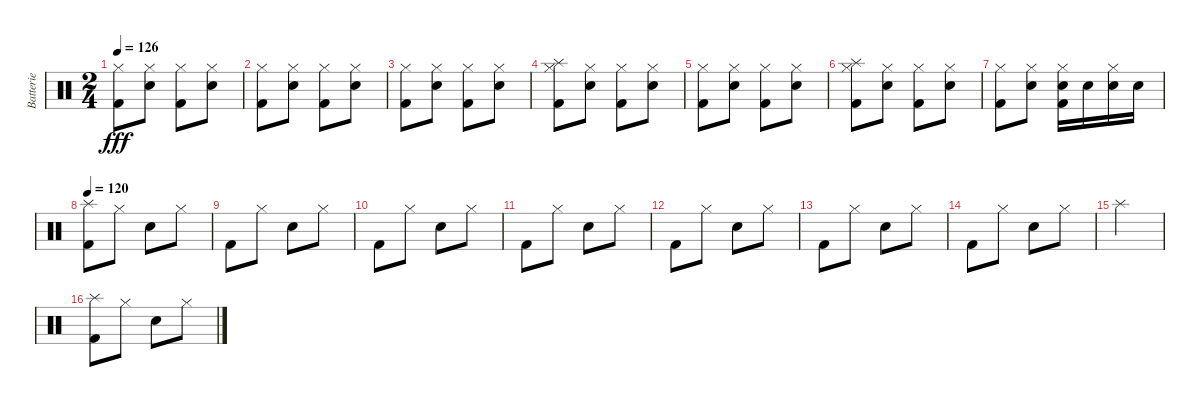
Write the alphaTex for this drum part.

\track ("Batterie" "Batterie") {instrument percussion}
\staff {score}
\articulation defaults
\ts (2 4)
\tempo 126
\clef neutral
\ks c
("Hi-Hat (closed)" "Kick (hit) 2").8{dy fff} ("Hi-Hat (closed)" "Electric Snare (hit)").8 ("Hi-Hat (closed)" "Kick (hit) 2").8 ("Hi-Hat (closed)" "Electric Snare (hit)").8 |
("Hi-Hat (closed)" "Kick (hit) 2").8 ("Hi-Hat (closed)" "Electric Snare (hit)").8 ("Hi-Hat (closed)" "Kick (hit) 2").8 ("Hi-Hat (closed)" "Electric Snare (hit)").8 |
("Hi-Hat (closed)" "Kick (hit) 2").8 ("Hi-Hat (closed)" "Electric Snare (hit)").8 ("Hi-Hat (closed)" "Kick (hit) 2").8 ("Hi-Hat (closed)" "Electric Snare (hit)").8 |
("Splash (hit)" "Hi-Hat (closed)" "Kick (hit) 2").8 ("Hi-Hat (closed)" "Electric Snare (hit)").8 ("Hi-Hat (closed)" "Kick (hit) 2").8 ("Hi-Hat (closed)" "Electric Snare (hit)").8 |
("Hi-Hat (closed)" "Kick (hit) 2").8 ("Hi-Hat (closed)" "Electric Snare (hit)").8 ("Hi-Hat (closed)" "Kick (hit) 2").8 ("Hi-Hat (closed)" "Electric Snare (hit)").8 |
("Splash (hit)" "Hi-Hat (closed)" "Kick (hit) 2").8 ("Hi-Hat (closed)" "Electric Snare (hit)").8 ("Hi-Hat (closed)" "Kick (hit) 2").8 ("Hi-Hat (closed)" "Electric Snare (hit)").8 |
("Hi-Hat (closed)" "Kick (hit) 2").8 ("Hi-Hat (closed)" "Electric Snare (hit)").8 ("Electric Snare (hit)" "Hi-Hat (closed)" "Kick (hit) 2").16 "Electric Snare (hit)".16 ("Electric Snare (hit)" "Hi-Hat (closed)").16 "Electric Snare (hit)".16 |
\tempo 120
("Kick (hit) 2" "Splash (hit)").8 "Hi-Hat (closed)".8 "Electric Snare (hit)".8 "Hi-Hat (closed)".8 |
"Kick (hit) 2".8 "Hi-Hat (closed)".8 "Electric Snare (hit)".8 "Hi-Hat (closed)".8 |
"Kick (hit) 2".8 "Hi-Hat (closed)".8 "Electric Snare (hit)".8 "Hi-Hat (closed)".8 |
"Kick (hit) 2".8 "Hi-Hat (closed)".8 "Electric Snare (hit)".8 "Hi-Hat (closed)".8 |
"Kick (hit) 2".8 "Hi-Hat (closed)".8 "Electric Snare (hit)".8 "Hi-Hat (closed)".8 |
"Kick (hit) 2".8 "Hi-Hat (closed)".8 "Electric Snare (hit)".8 "Hi-Hat (closed)".8 |
"Kick (hit) 2".8 "Hi-Hat (closed)".8 "Electric Snare (hit)".8 "Hi-Hat (closed)".8 |
"Splash (hit)".2 |
("Kick (hit) 2" "Splash (hit)").8 "Hi-Hat (closed)".8 "Electric Snare (hit)".8 "Hi-Hat (closed)".8
